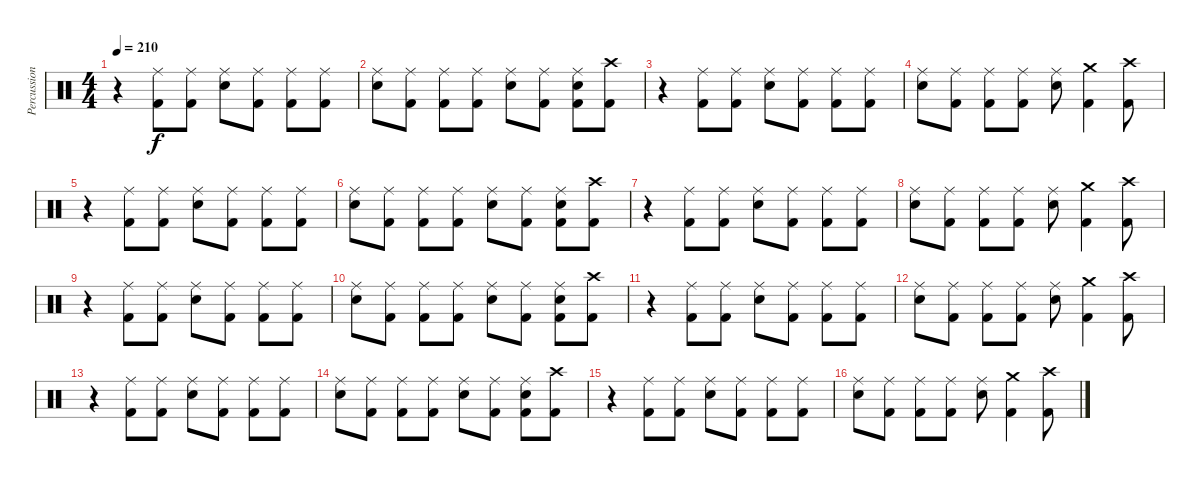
\track ("Percussion" "Percussion") {instrument percussion}
\staff {score}
\articulation defaults
\ts (4 4)
\tempo 210
\clef neutral
\ks c
r.4{dy f} ("Ride (middle)" "Kick (hit) 2").8 ("Ride (middle)" "Kick (hit) 2").8 ("Ride (middle)" "Electric Snare (hit)").8 ("Ride (middle)" "Kick (hit) 2").8 ("Ride (middle)" "Kick (hit) 2").8 ("Ride (middle)" "Kick (hit) 2").8 |
("Ride (middle)" "Electric Snare (hit)").8 ("Ride (middle)" "Kick (hit) 2").8 ("Ride (middle)" "Kick (hit) 2").8 ("Ride (middle)" "Kick (hit) 2").8 ("Ride (middle)" "Electric Snare (hit)").8 ("Ride (middle)" "Kick (hit) 2").8 ("Ride (middle)" "Electric Snare (hit)" "Kick (hit) 2").8 ("Crash high (hit)" "Kick (hit) 2").8 |
r.4 ("Ride (middle)" "Kick (hit) 2").8 ("Ride (middle)" "Kick (hit) 2").8 ("Ride (middle)" "Electric Snare (hit)").8 ("Ride (middle)" "Kick (hit) 2").8 ("Ride (middle)" "Kick (hit) 2").8 ("Ride (middle)" "Kick (hit) 2").8 |
("Ride (middle)" "Electric Snare (hit)").8 ("Ride (middle)" "Kick (hit) 2").8 ("Ride (middle)" "Kick (hit) 2").8 ("Ride (middle)" "Kick (hit) 2").8 ("Ride (middle)" "Electric Snare (hit)").8 ("Crash medium (hit)" "Kick (hit) 2").4 ("Crash high (hit)" "Kick (hit) 2").8 |
r.4 ("Ride (middle)" "Kick (hit) 2").8 ("Ride (middle)" "Kick (hit) 2").8 ("Ride (middle)" "Electric Snare (hit)").8 ("Ride (middle)" "Kick (hit) 2").8 ("Ride (middle)" "Kick (hit) 2").8 ("Ride (middle)" "Kick (hit) 2").8 |
("Ride (middle)" "Electric Snare (hit)").8 ("Ride (middle)" "Kick (hit) 2").8 ("Ride (middle)" "Kick (hit) 2").8 ("Ride (middle)" "Kick (hit) 2").8 ("Ride (middle)" "Electric Snare (hit)").8 ("Ride (middle)" "Kick (hit) 2").8 ("Ride (middle)" "Electric Snare (hit)" "Kick (hit) 2").8 ("Crash high (hit)" "Kick (hit) 2").8 |
r.4 ("Ride (middle)" "Kick (hit) 2").8 ("Ride (middle)" "Kick (hit) 2").8 ("Ride (middle)" "Electric Snare (hit)").8 ("Ride (middle)" "Kick (hit) 2").8 ("Ride (middle)" "Kick (hit) 2").8 ("Ride (middle)" "Kick (hit) 2").8 |
("Ride (middle)" "Electric Snare (hit)").8 ("Ride (middle)" "Kick (hit) 2").8 ("Ride (middle)" "Kick (hit) 2").8 ("Ride (middle)" "Kick (hit) 2").8 ("Ride (middle)" "Electric Snare (hit)").8 ("Crash medium (hit)" "Kick (hit) 2").4 ("Crash high (hit)" "Kick (hit) 2").8 |
r.4 ("Ride (middle)" "Kick (hit) 2").8 ("Ride (middle)" "Kick (hit) 2").8 ("Ride (middle)" "Electric Snare (hit)").8 ("Ride (middle)" "Kick (hit) 2").8 ("Ride (middle)" "Kick (hit) 2").8 ("Ride (middle)" "Kick (hit) 2").8 |
("Ride (middle)" "Electric Snare (hit)").8 ("Ride (middle)" "Kick (hit) 2").8 ("Ride (middle)" "Kick (hit) 2").8 ("Ride (middle)" "Kick (hit) 2").8 ("Ride (middle)" "Electric Snare (hit)").8 ("Ride (middle)" "Kick (hit) 2").8 ("Ride (middle)" "Electric Snare (hit)" "Kick (hit) 2").8 ("Crash high (hit)" "Kick (hit) 2").8 |
r.4 ("Ride (middle)" "Kick (hit) 2").8 ("Ride (middle)" "Kick (hit) 2").8 ("Ride (middle)" "Electric Snare (hit)").8 ("Ride (middle)" "Kick (hit) 2").8 ("Ride (middle)" "Kick (hit) 2").8 ("Ride (middle)" "Kick (hit) 2").8 |
("Ride (middle)" "Electric Snare (hit)").8 ("Ride (middle)" "Kick (hit) 2").8 ("Ride (middle)" "Kick (hit) 2").8 ("Ride (middle)" "Kick (hit) 2").8 ("Ride (middle)" "Electric Snare (hit)").8 ("Crash medium (hit)" "Kick (hit) 2").4 ("Crash high (hit)" "Kick (hit) 2").8 |
r.4 ("Ride (middle)" "Kick (hit) 2").8 ("Ride (middle)" "Kick (hit) 2").8 ("Ride (middle)" "Electric Snare (hit)").8 ("Ride (middle)" "Kick (hit) 2").8 ("Ride (middle)" "Kick (hit) 2").8 ("Ride (middle)" "Kick (hit) 2").8 |
("Ride (middle)" "Electric Snare (hit)").8 ("Ride (middle)" "Kick (hit) 2").8 ("Ride (middle)" "Kick (hit) 2").8 ("Ride (middle)" "Kick (hit) 2").8 ("Ride (middle)" "Electric Snare (hit)").8 ("Ride (middle)" "Kick (hit) 2").8 ("Ride (middle)" "Electric Snare (hit)" "Kick (hit) 2").8 ("Crash high (hit)" "Kick (hit) 2").8 |
r.4 ("Ride (middle)" "Kick (hit) 2").8 ("Ride (middle)" "Kick (hit) 2").8 ("Ride (middle)" "Electric Snare (hit)").8 ("Ride (middle)" "Kick (hit) 2").8 ("Ride (middle)" "Kick (hit) 2").8 ("Ride (middle)" "Kick (hit) 2").8 |
("Ride (middle)" "Electric Snare (hit)").8 ("Ride (middle)" "Kick (hit) 2").8 ("Ride (middle)" "Kick (hit) 2").8 ("Ride (middle)" "Kick (hit) 2").8 ("Ride (middle)" "Electric Snare (hit)").8 ("Crash medium (hit)" "Kick (hit) 2").4 ("Crash high (hit)" "Kick (hit) 2").8
